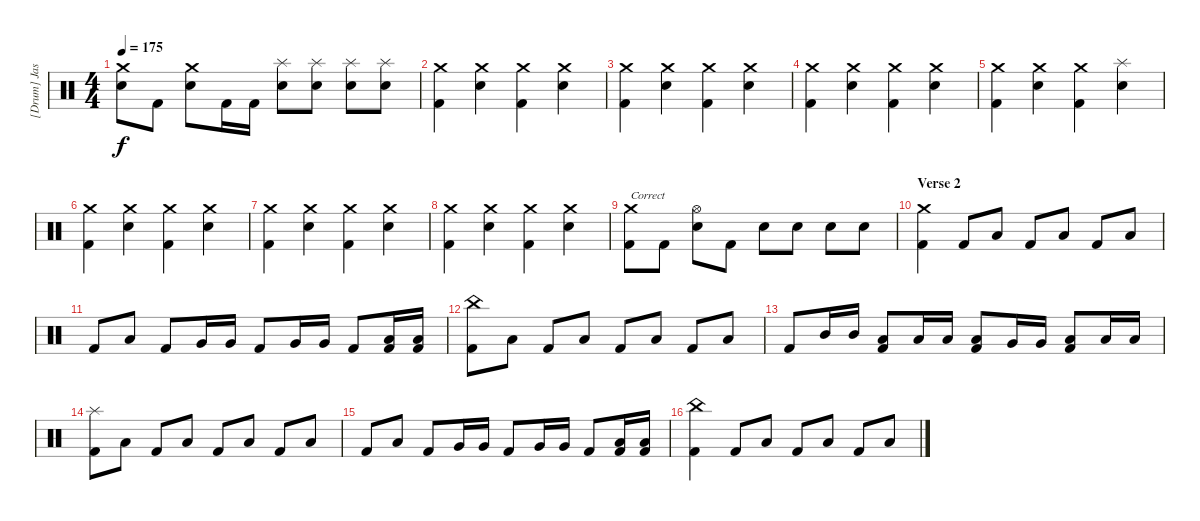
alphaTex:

\track ("[Drum] Jason \"Shakes\" West" "[Drum] Jas") {instrument percussion}
\staff {score}
\articulation defaults
\ts (4 4)
\tempo 175
\clef neutral
\ks c
("Electric Snare (hit)" "Crash medium (hit)").8{dy f} "Kick (hit) 2".8 ("Electric Snare (hit)" "Crash medium (hit)").8 "Kick (hit) 2".16 "Kick (hit) 2".16 ("Electric Snare (hit)" "Splash (hit)").8 ("Electric Snare (hit)" "Splash (hit)").8 ("Electric Snare (hit)" "Splash (hit)").8 ("Electric Snare (hit)" "Splash (hit)").8 |
("Crash medium (hit)" "Kick (hit) 2").4 ("Crash medium (hit)" "Electric Snare (hit)").4 ("Crash medium (hit)" "Kick (hit) 2").4 ("Crash medium (hit)" "Electric Snare (hit)").4 |
("Crash medium (hit)" "Kick (hit) 2").4 ("Crash medium (hit)" "Electric Snare (hit)").4 ("Crash medium (hit)" "Kick (hit) 2").4 ("Crash medium (hit)" "Electric Snare (hit)").4 |
("Crash medium (hit)" "Kick (hit) 2").4 ("Crash medium (hit)" "Electric Snare (hit)").4 ("Crash medium (hit)" "Kick (hit) 2").4 ("Crash medium (hit)" "Electric Snare (hit)").4 |
("Crash medium (hit)" "Kick (hit) 2").4 ("Crash medium (hit)" "Electric Snare (hit)").4 ("Crash medium (hit)" "Kick (hit) 2").4 ("Splash (hit)" "Electric Snare (hit)").4 |
("Crash medium (hit)" "Kick (hit) 2").4 ("Crash medium (hit)" "Electric Snare (hit)").4 ("Crash medium (hit)" "Kick (hit) 2").4 ("Crash medium (hit)" "Electric Snare (hit)").4 |
("Crash medium (hit)" "Kick (hit) 2").4 ("Crash medium (hit)" "Electric Snare (hit)").4 ("Crash medium (hit)" "Kick (hit) 2").4 ("Crash medium (hit)" "Electric Snare (hit)").4 |
("Crash medium (hit)" "Kick (hit) 2").4 ("Crash medium (hit)" "Electric Snare (hit)").4 ("Crash medium (hit)" "Kick (hit) 2").4 ("Crash medium (hit)" "Electric Snare (hit)").4 |
("Crash medium (hit)" "Kick (hit) 2").8{txt "Correct"} "Kick (hit) 2".8 ("Hi-Hat (open)" "Electric Snare (hit)").8 "Kick (hit) 2".8 "Electric Snare (hit)".8 "Electric Snare (hit)".8 "Electric Snare (hit)".8 "Electric Snare (hit)".8 |
\section ("" "Verse 2")
("Crash medium (hit)" "Kick (hit) 2").4 "Kick (hit) 2".8 "Low Floor Tom (hit)".8 "Kick (hit) 2".8 "Low Floor Tom (hit)".8 "Kick (hit) 2".8 "Low Floor Tom (hit)".8 |
"Kick (hit) 2".8 "Low Floor Tom (hit)".8 "Kick (hit) 2".8 "Very Low Tom (hit)".16 "Very Low Tom (hit)".16 "Kick (hit) 2".8 "Very Low Tom (hit)".16 "Very Low Tom (hit)".16 "Kick (hit) 2".8 ("Low Floor Tom (hit)" "Kick (hit) 2").16 ("Low Floor Tom (hit)" "Kick (hit) 2").16 |
("China (hit)" "Kick (hit) 2").8 "Low Floor Tom (hit)".8 "Kick (hit) 2".8 "Low Floor Tom (hit)".8 "Kick (hit) 2".8 "Low Floor Tom (hit)".8 "Kick (hit) 2".8 "Low Floor Tom (hit)".8 |
"Kick (hit) 2".8 "Mid Tom (hit)".16 "Mid Tom (hit)".16 ("Low Floor Tom (hit)" "Kick (hit) 2").8 "Low Tom (hit)".16 "Low Tom (hit)".16 ("Low Floor Tom (hit)" "Kick (hit) 2").8 "Very Low Tom (hit)".16 "Very Low Tom (hit)".16 ("Low Floor Tom (hit)" "Kick (hit) 2").8 "Low Floor Tom (hit)".16 "Low Floor Tom (hit)".16 |
("Splash (hit)" "Kick (hit) 2").8 "Low Floor Tom (hit)".8 "Kick (hit) 2".8 "Low Floor Tom (hit)".8 "Kick (hit) 2".8 "Low Floor Tom (hit)".8 "Kick (hit) 2".8 "Low Floor Tom (hit)".8 |
"Kick (hit) 2".8 "Low Floor Tom (hit)".8 "Kick (hit) 2".8 "Very Low Tom (hit)".16 "Very Low Tom (hit)".16 "Kick (hit) 2".8 "Very Low Tom (hit)".16 "Very Low Tom (hit)".16 "Kick (hit) 2".8 ("Low Floor Tom (hit)" "Kick (hit) 2").16 ("Low Floor Tom (hit)" "Kick (hit) 2").16 |
("China (hit)" "Kick (hit) 2").4 "Kick (hit) 2".8 "Low Floor Tom (hit)".8 "Kick (hit) 2".8 "Low Floor Tom (hit)".8 "Kick (hit) 2".8 "Low Floor Tom (hit)".8
